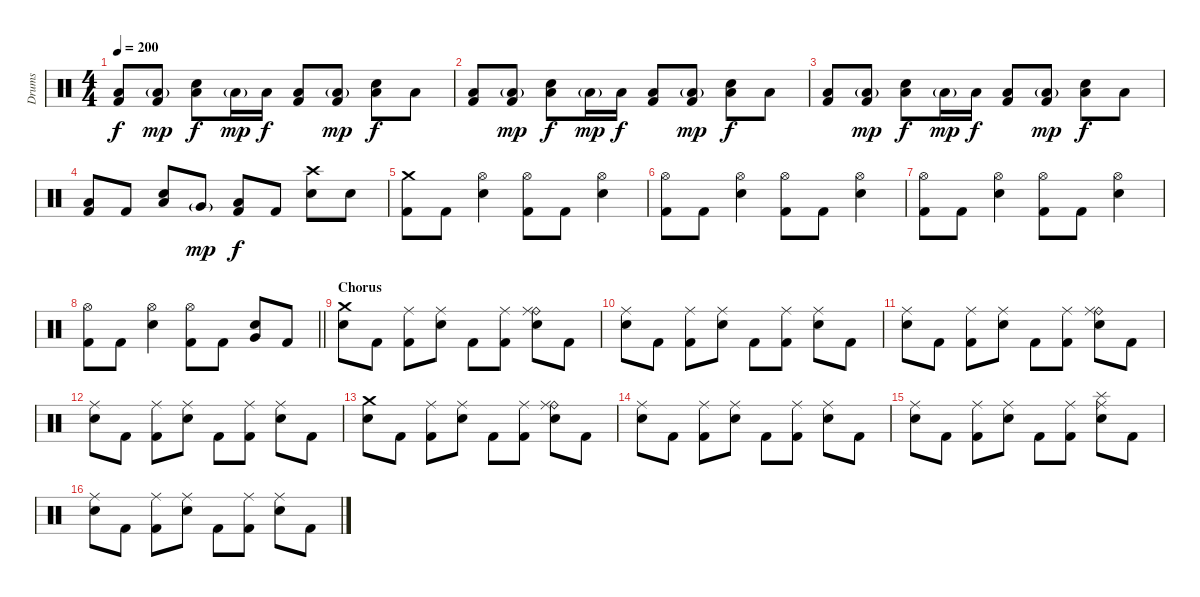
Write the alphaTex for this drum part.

\track ("Drums" "Drums") {instrument percussion}
\staff {score}
\articulation defaults
\ts (4 4)
\tempo 200
\clef neutral
\ks c
("Low Floor Tom (hit)" "Kick (hit) 2").8{dy f} ("Low Floor Tom (hit)"{g} "Kick (hit) 2").8{dy mp} ("Low Floor Tom (hit)" "Electric Snare (hit)").8{dy f} "Low Floor Tom (hit)"{g}.16{dy mp} "Low Floor Tom (hit)".16{dy f} ("Low Floor Tom (hit)" "Kick (hit) 2").8 ("Low Floor Tom (hit)"{g} "Kick (hit) 2").8{dy mp} ("Low Floor Tom (hit)" "Electric Snare (hit)").8{dy f} "Low Floor Tom (hit)".8 |
("Low Floor Tom (hit)" "Kick (hit) 2").8 ("Low Floor Tom (hit)"{g} "Kick (hit) 2").8{dy mp} ("Low Floor Tom (hit)" "Electric Snare (hit)").8{dy f} "Low Floor Tom (hit)"{g}.16{dy mp} "Low Floor Tom (hit)".16{dy f} ("Low Floor Tom (hit)" "Kick (hit) 2").8 ("Low Floor Tom (hit)"{g} "Kick (hit) 2").8{dy mp} ("Low Floor Tom (hit)" "Electric Snare (hit)").8{dy f} "Low Floor Tom (hit)".8 |
("Low Floor Tom (hit)" "Kick (hit) 2").8 ("Low Floor Tom (hit)"{g} "Kick (hit) 2").8{dy mp} ("Low Floor Tom (hit)" "Electric Snare (hit)").8{dy f} "Low Floor Tom (hit)"{g}.16{dy mp} "Low Floor Tom (hit)".16{dy f} ("Low Floor Tom (hit)" "Kick (hit) 2").8 ("Low Floor Tom (hit)"{g} "Kick (hit) 2").8{dy mp} ("Low Floor Tom (hit)" "Electric Snare (hit)").8{dy f} "Low Floor Tom (hit)".8 |
("Low Floor Tom (hit)" "Kick (hit) 2").8 "Kick (hit) 2".8 ("Low Floor Tom (hit)" "Electric Snare (hit)").8 "Very Low Tom (hit)"{g}.8{dy mp} ("Low Floor Tom (hit)" "Kick (hit) 2").8{dy f} "Kick (hit) 2".8 ("Crash high (hit)" "Electric Snare (hit)").8 "Electric Snare (hit)".8 |
("Crash medium (hit)" "Kick (hit) 2").8 "Kick (hit) 2".8 ("Hi-Hat (open)" "Electric Snare (hit)").4 ("Hi-Hat (open)" "Kick (hit) 2").8 "Kick (hit) 2".8 ("Hi-Hat (open)" "Electric Snare (hit)").4 |
("Hi-Hat (open)" "Kick (hit) 2").8 "Kick (hit) 2".8 ("Hi-Hat (open)" "Electric Snare (hit)").4 ("Hi-Hat (open)" "Kick (hit) 2").8 "Kick (hit) 2".8 ("Hi-Hat (open)" "Electric Snare (hit)").4 |
("Hi-Hat (open)" "Kick (hit) 2").8 "Kick (hit) 2".8 ("Hi-Hat (open)" "Electric Snare (hit)").4 ("Hi-Hat (open)" "Kick (hit) 2").8 "Kick (hit) 2".8 ("Hi-Hat (open)" "Electric Snare (hit)").4 |
\barLineRight lightlight
("Hi-Hat (open)" "Kick (hit) 2").8 "Kick (hit) 2".8 ("Hi-Hat (open)" "Electric Snare (hit)").4 ("Hi-Hat (open)" "Kick (hit) 2").8 "Kick (hit) 2".8 ("Very Low Tom (hit)" "Electric Snare (hit)").8 "Kick (hit) 2".8 |
\section ("" "Chorus")
("Crash medium (hit)" "Electric Snare (hit)").8 "Kick (hit) 2".8 ("Ride (middle)" "Kick (hit) 2").8 ("Ride (middle)" "Electric Snare (hit)").8 "Kick (hit) 2".8 ("Ride (middle)" "Kick (hit) 2").8 ("Ride (bell)" "Ride (middle)" "Electric Snare (hit)").8 "Kick (hit) 2".8 |
("Ride (middle)" "Electric Snare (hit)").8 "Kick (hit) 2".8 ("Ride (middle)" "Kick (hit) 2").8 ("Ride (middle)" "Electric Snare (hit)").8 "Kick (hit) 2".8 ("Ride (middle)" "Kick (hit) 2").8 ("Ride (middle)" "Electric Snare (hit)").8 "Kick (hit) 2".8 |
("Ride (middle)" "Electric Snare (hit)").8 "Kick (hit) 2".8 ("Ride (middle)" "Kick (hit) 2").8 ("Ride (middle)" "Electric Snare (hit)").8 "Kick (hit) 2".8 ("Ride (middle)" "Kick (hit) 2").8 ("Ride (bell)" "Ride (middle)" "Electric Snare (hit)").8 "Kick (hit) 2".8 |
("Ride (middle)" "Electric Snare (hit)").8 "Kick (hit) 2".8 ("Ride (middle)" "Kick (hit) 2").8 ("Ride (middle)" "Electric Snare (hit)").8 "Kick (hit) 2".8 ("Ride (middle)" "Kick (hit) 2").8 ("Ride (middle)" "Electric Snare (hit)").8 "Kick (hit) 2".8 |
("Crash medium (hit)" "Electric Snare (hit)").8 "Kick (hit) 2".8 ("Ride (middle)" "Kick (hit) 2").8 ("Ride (middle)" "Electric Snare (hit)").8 "Kick (hit) 2".8 ("Ride (middle)" "Kick (hit) 2").8 ("Ride (bell)" "Ride (middle)" "Electric Snare (hit)").8 "Kick (hit) 2".8 |
("Ride (middle)" "Electric Snare (hit)").8 "Kick (hit) 2".8 ("Ride (middle)" "Kick (hit) 2").8 ("Ride (middle)" "Electric Snare (hit)").8 "Kick (hit) 2".8 ("Ride (middle)" "Kick (hit) 2").8 ("Ride (middle)" "Electric Snare (hit)").8 "Kick (hit) 2".8 |
("Ride (middle)" "Electric Snare (hit)").8 "Kick (hit) 2".8 ("Ride (middle)" "Kick (hit) 2").8 ("Ride (middle)" "Electric Snare (hit)").8 "Kick (hit) 2".8 ("Ride (middle)" "Kick (hit) 2").8 ("Ride (middle)" "Splash (hit)" "Electric Snare (hit)").8 "Kick (hit) 2".8 |
("Ride (middle)" "Electric Snare (hit)").8 "Kick (hit) 2".8 ("Ride (middle)" "Kick (hit) 2").8 ("Ride (middle)" "Electric Snare (hit)").8 "Kick (hit) 2".8 ("Ride (middle)" "Kick (hit) 2").8 ("Ride (middle)" "Electric Snare (hit)").8 "Kick (hit) 2".8
